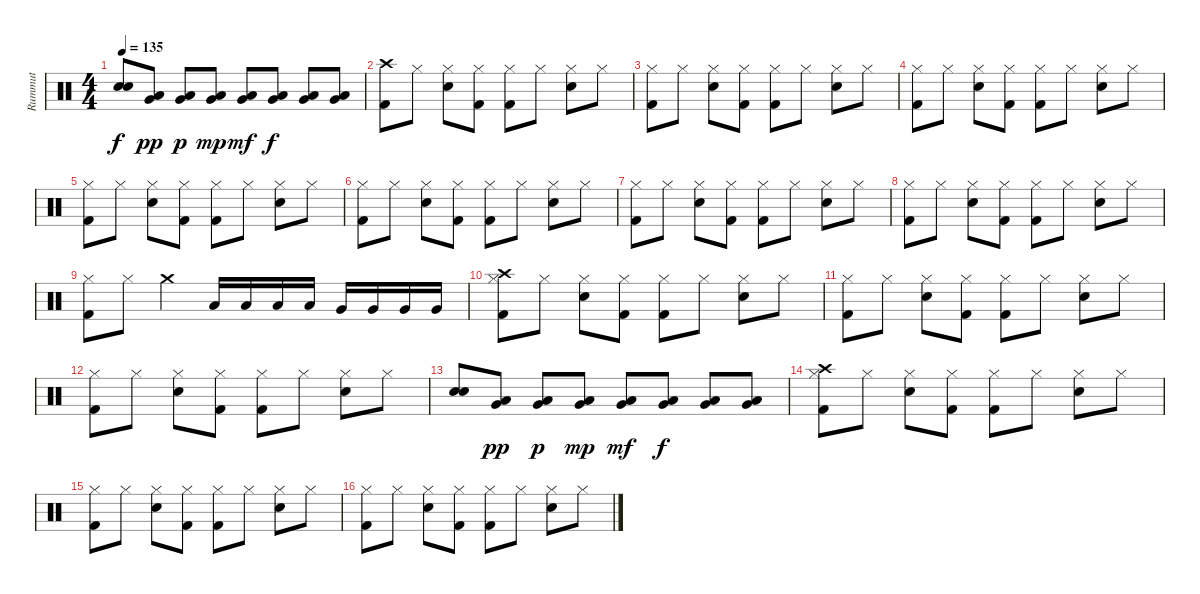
\track ("Rummut" "Rummut") {instrument percussion}
\staff {score}
\articulation defaults
\ts (4 4)
\tempo 135
\clef neutral
\ks c
("Electric Snare (hit)" "Electric Snare (hit)").8{dy f} ("Very Low Tom (hit)" "Low Floor Tom (hit)").8{dy pp} ("Very Low Tom (hit)" "Low Floor Tom (hit)").8{dy p} ("Very Low Tom (hit)" "Low Floor Tom (hit)").8{dy mp} ("Very Low Tom (hit)" "Low Floor Tom (hit)").8{dy mf} ("Very Low Tom (hit)" "Low Floor Tom (hit)").8{dy f} ("Very Low Tom (hit)" "Low Floor Tom (hit)").8 ("Very Low Tom (hit)" "Low Floor Tom (hit)").8 |
("Crash high (hit)" "Kick (hit) 2").8 "Hi-Hat (closed)".8 ("Hi-Hat (closed)" "Electric Snare (hit)").8 ("Hi-Hat (closed)" "Kick (hit) 2").8 ("Hi-Hat (closed)" "Kick (hit) 2").8 "Hi-Hat (closed)".8 ("Hi-Hat (closed)" "Electric Snare (hit)").8 "Hi-Hat (closed)".8 |
("Hi-Hat (closed)" "Kick (hit) 2").8 "Hi-Hat (closed)".8 ("Hi-Hat (closed)" "Electric Snare (hit)").8 ("Hi-Hat (closed)" "Kick (hit) 2").8 ("Hi-Hat (closed)" "Kick (hit) 2").8 "Hi-Hat (closed)".8 ("Hi-Hat (closed)" "Electric Snare (hit)").8 "Hi-Hat (closed)".8 |
("Hi-Hat (closed)" "Kick (hit) 2").8 "Hi-Hat (closed)".8 ("Hi-Hat (closed)" "Electric Snare (hit)").8 ("Hi-Hat (closed)" "Kick (hit) 2").8 ("Hi-Hat (closed)" "Kick (hit) 2").8 "Hi-Hat (closed)".8 ("Hi-Hat (closed)" "Electric Snare (hit)").8 "Hi-Hat (closed)".8 |
("Hi-Hat (closed)" "Kick (hit) 2").8 "Hi-Hat (closed)".8 ("Hi-Hat (closed)" "Electric Snare (hit)").8 ("Hi-Hat (closed)" "Kick (hit) 2").8 ("Hi-Hat (closed)" "Kick (hit) 2").8 "Hi-Hat (closed)".8 ("Hi-Hat (closed)" "Electric Snare (hit)").8 "Hi-Hat (closed)".8 |
("Hi-Hat (closed)" "Kick (hit) 2").8 "Hi-Hat (closed)".8 ("Hi-Hat (closed)" "Electric Snare (hit)").8 ("Hi-Hat (closed)" "Kick (hit) 2").8 ("Hi-Hat (closed)" "Kick (hit) 2").8 "Hi-Hat (closed)".8 ("Hi-Hat (closed)" "Electric Snare (hit)").8 "Hi-Hat (closed)".8 |
("Hi-Hat (closed)" "Kick (hit) 2").8 "Hi-Hat (closed)".8 ("Hi-Hat (closed)" "Electric Snare (hit)").8 ("Hi-Hat (closed)" "Kick (hit) 2").8 ("Hi-Hat (closed)" "Kick (hit) 2").8 "Hi-Hat (closed)".8 ("Hi-Hat (closed)" "Electric Snare (hit)").8 "Hi-Hat (closed)".8 |
("Hi-Hat (closed)" "Kick (hit) 2").8 "Hi-Hat (closed)".8 ("Hi-Hat (closed)" "Electric Snare (hit)").8 ("Hi-Hat (closed)" "Kick (hit) 2").8 ("Hi-Hat (closed)" "Kick (hit) 2").8 "Hi-Hat (closed)".8 ("Hi-Hat (closed)" "Electric Snare (hit)").8 "Hi-Hat (closed)".8 |
("Hi-Hat (closed)" "Kick (hit) 2").8 "Hi-Hat (closed)".8 "Crash medium (hit)".4 "Low Tom (hit)".16 "Low Tom (hit)".16 "Low Tom (hit)".16 "Low Tom (hit)".16 "Very Low Tom (hit)".16 "Very Low Tom (hit)".16 "Very Low Tom (hit)".16 "Very Low Tom (hit)".16 |
("Crash high (hit)" "Hi-Hat (closed)" "Kick (hit) 2").8 "Hi-Hat (closed)".8 ("Hi-Hat (closed)" "Electric Snare (hit)").8 ("Hi-Hat (closed)" "Kick (hit) 2").8 ("Hi-Hat (closed)" "Kick (hit) 2").8 "Hi-Hat (closed)".8 ("Hi-Hat (closed)" "Electric Snare (hit)").8 "Hi-Hat (closed)".8 |
("Hi-Hat (closed)" "Kick (hit) 2").8 "Hi-Hat (closed)".8 ("Hi-Hat (closed)" "Electric Snare (hit)").8 ("Hi-Hat (closed)" "Kick (hit) 2").8 ("Hi-Hat (closed)" "Kick (hit) 2").8 "Hi-Hat (closed)".8 ("Hi-Hat (closed)" "Electric Snare (hit)").8 "Hi-Hat (closed)".8 |
("Hi-Hat (closed)" "Kick (hit) 2").8 "Hi-Hat (closed)".8 ("Hi-Hat (closed)" "Electric Snare (hit)").8 ("Hi-Hat (closed)" "Kick (hit) 2").8 ("Hi-Hat (closed)" "Kick (hit) 2").8 "Hi-Hat (closed)".8 ("Hi-Hat (closed)" "Electric Snare (hit)").8 "Hi-Hat (closed)".8 |
("Electric Snare (hit)" "Electric Snare (hit)").8 ("Very Low Tom (hit)" "Low Floor Tom (hit)").8{dy pp} ("Very Low Tom (hit)" "Low Floor Tom (hit)").8{dy p} ("Very Low Tom (hit)" "Low Floor Tom (hit)").8{dy mp} ("Very Low Tom (hit)" "Low Floor Tom (hit)").8{dy mf} ("Very Low Tom (hit)" "Low Floor Tom (hit)").8{dy f} ("Very Low Tom (hit)" "Low Floor Tom (hit)").8 ("Very Low Tom (hit)" "Low Floor Tom (hit)").8 |
("Crash high (hit)" "Hi-Hat (closed)" "Kick (hit) 2").8 "Hi-Hat (closed)".8 ("Hi-Hat (closed)" "Electric Snare (hit)").8 ("Hi-Hat (closed)" "Kick (hit) 2").8 ("Hi-Hat (closed)" "Kick (hit) 2").8 "Hi-Hat (closed)".8 ("Hi-Hat (closed)" "Electric Snare (hit)").8 "Hi-Hat (closed)".8 |
("Hi-Hat (closed)" "Kick (hit) 2").8 "Hi-Hat (closed)".8 ("Hi-Hat (closed)" "Electric Snare (hit)").8 ("Hi-Hat (closed)" "Kick (hit) 2").8 ("Hi-Hat (closed)" "Kick (hit) 2").8 "Hi-Hat (closed)".8 ("Hi-Hat (closed)" "Electric Snare (hit)").8 "Hi-Hat (closed)".8 |
("Hi-Hat (closed)" "Kick (hit) 2").8 "Hi-Hat (closed)".8 ("Hi-Hat (closed)" "Electric Snare (hit)").8 ("Hi-Hat (closed)" "Kick (hit) 2").8 ("Hi-Hat (closed)" "Kick (hit) 2").8 "Hi-Hat (closed)".8 ("Hi-Hat (closed)" "Electric Snare (hit)").8 "Hi-Hat (closed)".8
